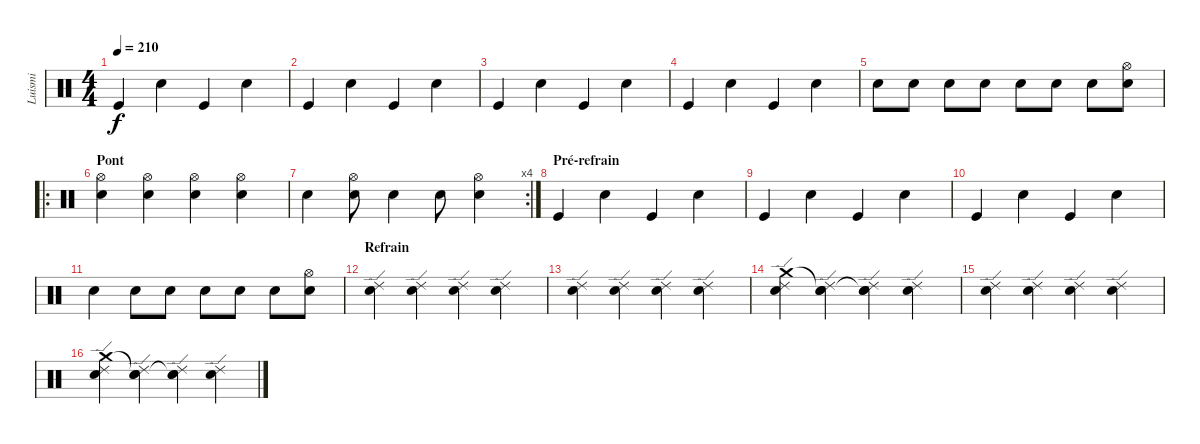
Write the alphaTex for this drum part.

\track ("Luismi" "Luismi") {instrument percussion}
\staff {score}
\articulation defaults
\ts (4 4)
\tempo 210
\clef neutral
\ks c "Kick (hit)".4{dy f} "Electric Snare (hit)".4 "Kick (hit)".4 "Electric Snare (hit)".4
|
"Kick (hit)".4 "Electric Snare (hit)".4 "Kick (hit)".4 "Electric Snare (hit)".4 |
"Kick (hit)".4 "Electric Snare (hit)".4 "Kick (hit)".4 "Electric Snare (hit)".4 |
"Kick (hit)".4 "Electric Snare (hit)".4 "Kick (hit)".4 "Electric Snare (hit)".4 |
"Electric Snare (hit)".8 "Electric Snare (hit)".8 "Electric Snare (hit)".8 "Electric Snare (hit)".8 "Electric Snare (hit)".8 "Electric Snare (hit)".8 "Electric Snare (hit)".8 ("Electric Snare (hit)" "Hi-Hat (open)").8 |
\ro
\section ("" "Pont")
("Snare (hit) 2" "Hi-Hat (open)").4 ("Snare (hit) 2" "Hi-Hat (open)").4 ("Snare (hit) 2" "Hi-Hat (open)").4 ("Snare (hit) 2" "Hi-Hat (open)").4 |
\rc 4 "Snare (hit) 2".4
("Electric Snare (hit)" "Hi-Hat (open)").8 "Snare (hit) 2".4 "Snare (hit) 2".8 ("Electric Snare (hit)" "Hi-Hat (open)").4 |
\section ("" "Pré-refrain")
"Kick (hit)".4 "Electric Snare (hit)".4 "Kick (hit)".4 "Electric Snare (hit)".4 |
"Kick (hit)".4 "Electric Snare (hit)".4 "Kick (hit)".4 "Electric Snare (hit)".4 |
"Kick (hit)".4 "Electric Snare (hit)".4 "Kick (hit)".4 "Electric Snare (hit)".4 |
"Electric Snare (hit)".4 "Electric Snare (hit)".8 "Electric Snare (hit)".8 "Electric Snare (hit)".8 "Electric Snare (hit)".8 "Electric Snare (hit)".8 ("Electric Snare (hit)" "Hi-Hat (open)").8 |
\section ("" "Refrain")
("Snare (hit) 2" "Ride (edge) 2").4 ("Electric Snare (hit)" "Ride (edge) 2").4 ("Snare (hit) 2" "Ride (edge) 2").4 ("Electric Snare (hit)" "Ride (edge) 2").4 |
("Snare (hit) 2" "Ride (edge) 2").4 ("Electric Snare (hit)" "Ride (edge) 2").4 ("Snare (hit) 2" "Ride (edge) 2").4 ("Electric Snare (hit)" "Ride (edge) 2").4 |
("Snare (hit) 2" "Ride (edge) 2" "Crash medium (hit)").4 ("Electric Snare (hit)" "Ride (edge) 2" "Snare (hit)"{t}).4 ("Snare (hit) 2" "Ride (edge) 2" "Snare (hit)"{t}).4 ("Electric Snare (hit)" "Ride (edge) 2").4 |
("Snare (hit) 2" "Ride (edge) 2").4 ("Electric Snare (hit)" "Ride (edge) 2").4 ("Snare (hit) 2" "Ride (edge) 2").4 ("Electric Snare (hit)" "Ride (edge) 2").4 |
("Snare (hit) 2" "Ride (edge) 2" "Crash medium (hit)").4 ("Electric Snare (hit)" "Ride (edge) 2" "Snare (hit)"{t}).4 ("Snare (hit) 2" "Ride (edge) 2" "Snare (hit)"{t}).4 ("Electric Snare (hit)" "Ride (edge) 2").4
